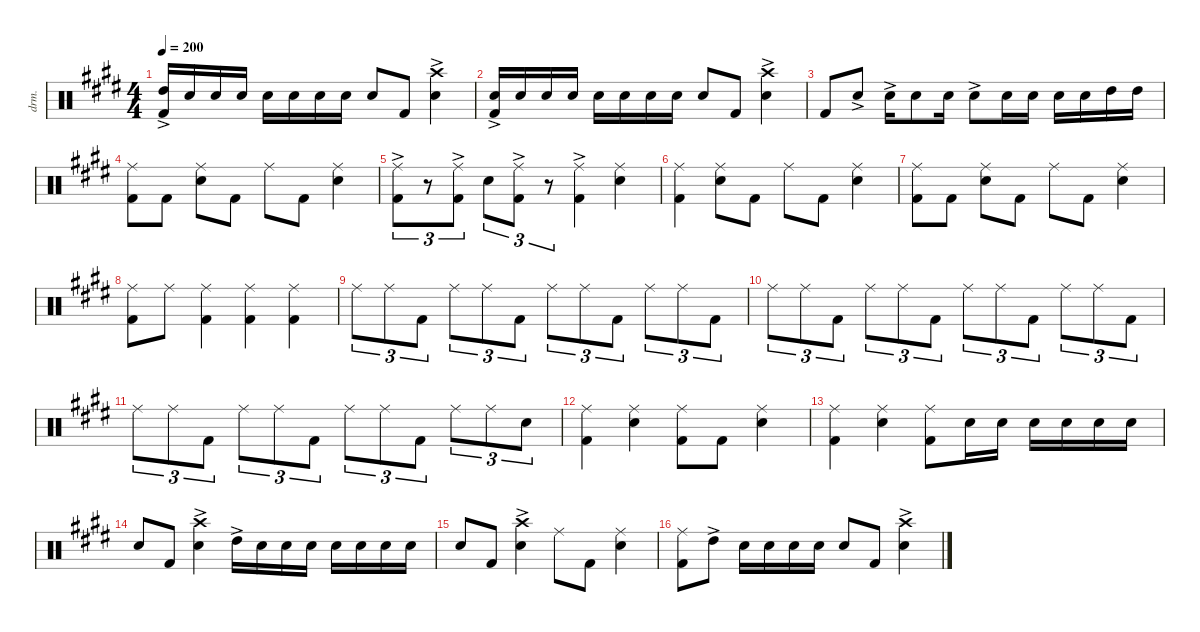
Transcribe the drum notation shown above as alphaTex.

\defaultSystemsLayout 4
\hideDynamics
\bracketExtendMode nobrackets
\otherSystemsTrackNameOrientation horizontal
\track ("Mitch" "drm.") {instrument percussion}
\staff {score}
\articulation defaults
\ts (4 4)
\tempo 200
\clef neutral
\ks e
("High Tom (hit)"{ac acc forcenatural} "Kick (hit) 2"{acc forcenatural}).16{dy f beam Up} "Snare (hit) 2"{acc forcenatural}.16{beam Up} "Snare (hit) 2"{acc forcenatural}.16{beam Up} "Snare (hit) 2"{acc forcenatural}.16{beam Up} "Snare (hit) 2"{acc forcenatural}.16{beam Down} "Snare (hit) 2"{acc forcenatural}.16{beam Down} "Snare (hit) 2"{acc forcenatural}.16{beam Down} "Snare (hit) 2"{acc forcenatural}.16{beam Down} "Snare (hit) 2"{acc forcenatural}.8{beam Up} "Kick (hit) 2"{acc forcenatural}.8{beam Up} ("Crash high (hit)"{ac acc forcenatural} "Snare (hit) 2"{acc forcenatural}).4{beam Down} |
("Snare (hit) 2"{ac acc forcenatural} "Kick (hit) 2"{acc forcenatural}).16{beam Up} "Snare (hit) 2"{acc forcenatural}.16{beam Up} "Snare (hit) 2"{acc forcenatural}.16{beam Up} "Snare (hit) 2"{acc forcenatural}.16{beam Up} "Snare (hit) 2"{acc forcenatural}.16{beam Down} "Snare (hit) 2"{acc forcenatural}.16{beam Down} "Snare (hit) 2"{acc forcenatural}.16{beam Down} "Snare (hit) 2"{acc forcenatural}.16{beam Down} "Snare (hit) 2"{acc forcenatural}.8{beam Up} "Kick (hit) 2"{acc forcenatural}.8{beam Up} ("Crash high (hit)"{ac acc forcenatural} "Snare (hit) 2"{acc forcenatural}).4{beam Down} |
"Kick (hit) 2"{acc forcenatural}.8{beam Up} "Snare (hit) 2"{ac acc forcenatural}.8{beam Up} "Snare (hit) 2"{ac acc forcenatural}.16{beam Down} "Snare (hit) 2"{acc forcenatural}.8{beam Down} "Snare (hit) 2"{acc forcenatural}.16{beam Down} "Snare (hit) 2"{ac acc forcenatural}.8{beam Down} "Snare (hit) 2"{acc forcenatural}.16{beam Down} "Snare (hit) 2"{acc forcenatural}.16{beam Down} "Snare (hit) 2"{acc forcenatural}.16{beam Down} "Snare (hit) 2"{acc forcenatural}.16{beam Down} "High Tom (hit)"{acc forcenatural}.16{beam Down} "High Tom (hit)"{acc forcenatural}.16{beam Down} |
("Ride (middle)"{acc forcenatural} "Kick (hit) 2"{acc forcenatural}).8{beam Down} "Kick (hit) 2"{acc forcenatural}.8{beam Down} ("Ride (middle)"{acc forcenatural} "Snare (hit) 2"{acc forcenatural}).8{beam Down} "Kick (hit) 2"{acc forcenatural}.8{beam Down} "Ride (middle)"{acc forcenatural}.8{beam Down} "Kick (hit) 2"{acc forcenatural}.8{beam Down} ("Ride (middle)"{acc forcenatural} "Snare (hit) 2"{acc forcenatural}).4{beam Down} |
("Ride (middle)"{ac acc forcenatural} "Kick (hit) 2"{acc forcenatural}).8{tu (3 2) beam Down} r.8{tu (3 2) beam Down} ("Ride (middle)"{ac acc forcenatural} "Kick (hit) 2"{acc forcenatural}).8{tu (3 2) beam Down} "Snare (hit) 2"{acc forcenatural}.8{tu (3 2) beam Down} ("Ride (middle)"{ac acc forcenatural} "Kick (hit) 2"{acc forcenatural}).8{tu (3 2) beam Down} r.8{tu (3 2) beam Down} ("Ride (middle)"{ac acc forcenatural} "Kick (hit) 2"{acc forcenatural}).4{beam Down} ("Ride (middle)"{acc forcenatural} "Snare (hit) 2"{acc forcenatural}).4{beam Down} |
("Ride (middle)"{acc forcenatural} "Kick (hit) 2"{acc forcenatural}).4{beam Down} ("Ride (middle)"{acc forcenatural} "Snare (hit) 2"{acc forcenatural}).8{beam Down} "Kick (hit) 2"{acc forcenatural}.8{beam Down} "Ride (middle)"{acc forcenatural}.8{beam Down} "Kick (hit) 2"{acc forcenatural}.8{beam Down} ("Ride (middle)"{acc forcenatural} "Snare (hit) 2"{acc forcenatural}).4{beam Down} |
("Ride (middle)"{acc forcenatural} "Kick (hit) 2"{acc forcenatural}).8{beam Down} "Kick (hit) 2"{acc forcenatural}.8{beam Down} ("Ride (middle)"{acc forcenatural} "Snare (hit) 2"{acc forcenatural}).8{beam Down} "Kick (hit) 2"{acc forcenatural}.8{beam Down} "Ride (middle)"{acc forcenatural}.8{beam Down} "Kick (hit) 2"{acc forcenatural}.8{beam Down} ("Ride (middle)"{acc forcenatural} "Snare (hit) 2"{acc forcenatural}).4{beam Down} |
("Ride (middle)"{acc forcenatural} "Kick (hit) 2"{acc forcenatural}).8{beam Down} "Ride (middle)"{acc forcenatural}.8{beam Down} ("Ride (middle)"{acc forcenatural} "Kick (hit) 2"{acc forcenatural}).4{beam Down} ("Ride (middle)"{acc forcenatural} "Kick (hit) 2"{acc forcenatural}).4{beam Down} ("Ride (middle)"{acc forcenatural} "Kick (hit) 2"{acc forcenatural}).4{beam Down} |
"Ride (middle)"{acc forcenatural}.8{tu (3 2) beam Down} "Ride (middle)"{acc forcenatural}.8{tu (3 2) beam Down} "Kick (hit) 2"{acc forcenatural}.8{tu (3 2) beam Down} "Ride (middle)"{acc forcenatural}.8{tu (3 2) beam Down} "Ride (middle)"{acc forcenatural}.8{tu (3 2) beam Down} "Kick (hit) 2"{acc forcenatural}.8{tu (3 2) beam Down} "Ride (middle)"{acc forcenatural}.8{tu (3 2) beam Down} "Ride (middle)"{acc forcenatural}.8{tu (3 2) beam Down} "Kick (hit) 2"{acc forcenatural}.8{tu (3 2) beam Down} "Ride (middle)"{acc forcenatural}.8{tu (3 2) beam Down} "Ride (middle)"{acc forcenatural}.8{tu (3 2) beam Down} "Kick (hit) 2"{acc forcenatural}.8{tu (3 2) beam Down} |
"Ride (middle)"{acc forcenatural}.8{tu (3 2) beam Down} "Ride (middle)"{acc forcenatural}.8{tu (3 2) beam Down} "Kick (hit) 2"{acc forcenatural}.8{tu (3 2) beam Down} "Ride (middle)"{acc forcenatural}.8{tu (3 2) beam Down} "Ride (middle)"{acc forcenatural}.8{tu (3 2) beam Down} "Kick (hit) 2"{acc forcenatural}.8{tu (3 2) beam Down} "Ride (middle)"{acc forcenatural}.8{tu (3 2) beam Down} "Ride (middle)"{acc forcenatural}.8{tu (3 2) beam Down} "Kick (hit) 2"{acc forcenatural}.8{tu (3 2) beam Down} "Ride (middle)"{acc forcenatural}.8{tu (3 2) beam Down} "Ride (middle)"{acc forcenatural}.8{tu (3 2) beam Down} "Kick (hit) 2"{acc forcenatural}.8{tu (3 2) beam Down} |
"Ride (middle)"{acc forcenatural}.8{tu (3 2) beam Down} "Ride (middle)"{acc forcenatural}.8{tu (3 2) beam Down} "Kick (hit) 2"{acc forcenatural}.8{tu (3 2) beam Down} "Ride (middle)"{acc forcenatural}.8{tu (3 2) beam Down} "Ride (middle)"{acc forcenatural}.8{tu (3 2) beam Down} "Kick (hit) 2"{acc forcenatural}.8{tu (3 2) beam Down} "Ride (middle)"{acc forcenatural}.8{tu (3 2) beam Down} "Ride (middle)"{acc forcenatural}.8{tu (3 2) beam Down} "Kick (hit) 2"{acc forcenatural}.8{tu (3 2) beam Down} "Ride (middle)"{acc forcenatural}.8{tu (3 2) beam Down} "Ride (middle)"{acc forcenatural}.8{tu (3 2) beam Down} "Snare (hit) 2"{acc forcenatural}.8{tu (3 2) beam Down} |
("Ride (middle)"{acc forcenatural} "Kick (hit) 2"{acc forcenatural}).4{beam Down} ("Ride (middle)"{acc forcenatural} "Snare (hit) 2"{acc forcenatural}).4{beam Down} ("Ride (middle)"{acc forcenatural} "Kick (hit) 2"{acc forcenatural}).8{beam Down} "Kick (hit) 2"{acc forcenatural}.8{beam Down} ("Ride (middle)"{acc forcenatural} "Snare (hit) 2"{acc forcenatural}).4{beam Down} |
("Ride (middle)"{acc forcenatural} "Kick (hit) 2"{acc forcenatural}).4{beam Down} ("Ride (middle)"{acc forcenatural} "Snare (hit) 2"{acc forcenatural}).4{beam Down} ("Ride (middle)"{acc forcenatural} "Kick (hit) 2"{acc forcenatural}).8{beam Down} "Snare (hit) 2"{acc forcenatural}.16{beam Down} "Snare (hit) 2"{acc forcenatural}.16{beam Down} "Snare (hit) 2"{acc forcenatural}.16{beam Down} "Snare (hit) 2"{acc forcenatural}.16{beam Down} "Snare (hit) 2"{acc forcenatural}.16{beam Down} "Snare (hit) 2"{acc forcenatural}.16{beam Down} |
"Snare (hit) 2"{acc forcenatural}.8{beam Up} "Kick (hit) 2"{acc forcenatural}.8{beam Up} ("Crash high (hit)"{ac acc forcenatural} "Snare (hit) 2"{acc forcenatural}).4{beam Down} "High Tom (hit)"{ac acc forcenatural}.16{beam Down} "Snare (hit) 2"{acc forcenatural}.16{beam Down} "Snare (hit) 2"{acc forcenatural}.16{beam Down} "Snare (hit) 2"{acc forcenatural}.16{beam Down} "Snare (hit) 2"{acc forcenatural}.16{beam Down} "Snare (hit) 2"{acc forcenatural}.16{beam Down} "Snare (hit) 2"{acc forcenatural}.16{beam Down} "Snare (hit) 2"{acc forcenatural}.16{beam Down} |
"Snare (hit) 2"{acc forcenatural}.8{beam Up} "Kick (hit) 2"{acc forcenatural}.8{beam Up} ("Crash high (hit)"{ac acc forcenatural} "Snare (hit) 2"{acc forcenatural}).4{beam Down} "Ride (middle)"{acc forcenatural}.8{beam Down} "Kick (hit) 2"{acc forcenatural}.8{beam Down} ("Ride (middle)"{acc forcenatural} "Snare (hit) 2"{acc forcenatural}).4{beam Down} |
("Ride (middle)"{acc forcenatural} "Kick (hit) 2"{acc forcenatural}).8{beam Down} "High Tom (hit)"{ac acc forcenatural}.8{beam Down} "Snare (hit) 2"{acc forcenatural}.16{beam Down} "Snare (hit) 2"{acc forcenatural}.16{beam Down} "Snare (hit) 2"{acc forcenatural}.16{beam Down} "Snare (hit) 2"{acc forcenatural}.16{beam Down} "Snare (hit) 2"{acc forcenatural}.8{beam Up} "Kick (hit) 2"{acc forcenatural}.8{beam Up} ("Crash high (hit)"{ac acc forcenatural} "Snare (hit) 2"{acc forcenatural}).4{beam Down}
